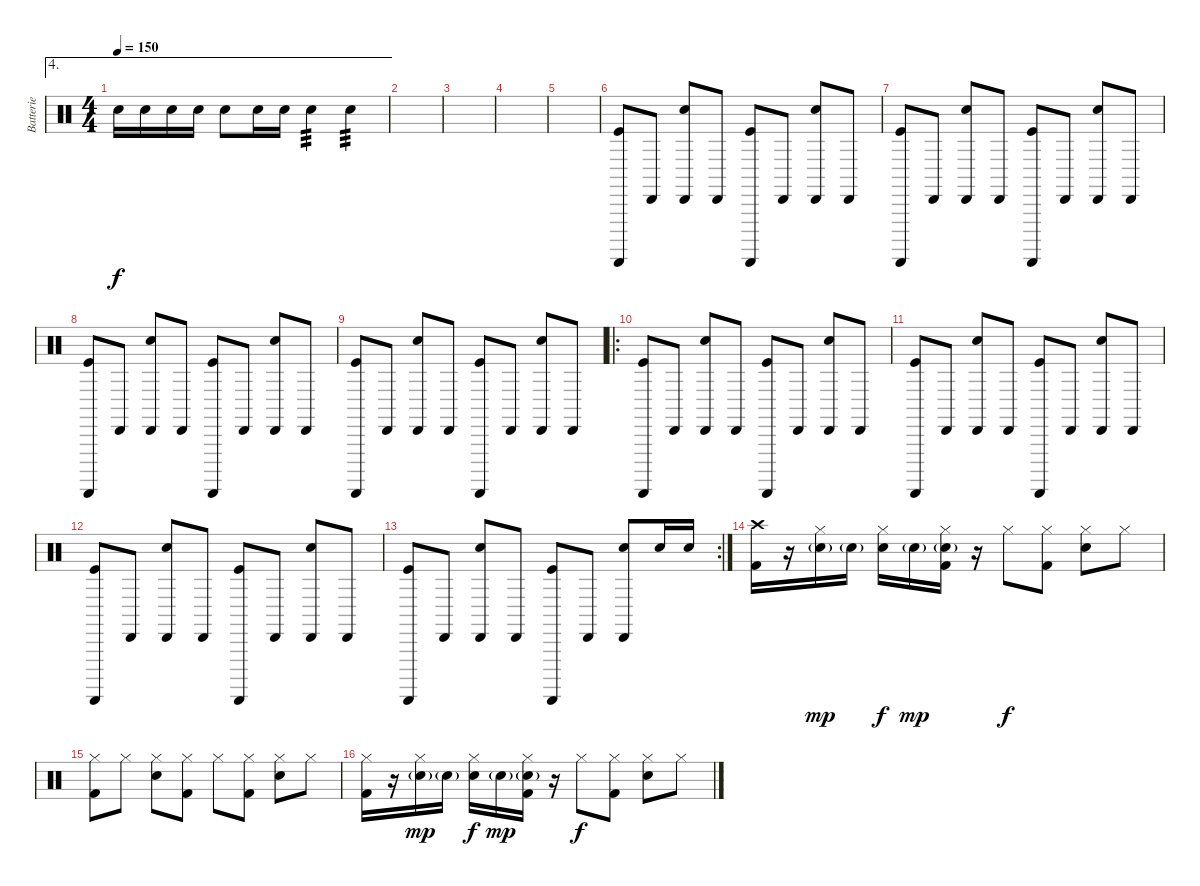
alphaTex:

\track ("Batterie" "Batterie") {instrument percussion}
\staff {score}
\articulation defaults
\ae 4
\ts (4 4)
\tempo 150
\clef neutral
\ks c "Snare (hit) 2".16{dy f} "Snare (hit) 2".16 "Snare (hit) 2".16 "Snare (hit) 2".16 "Snare (hit) 2".8 "Snare (hit) 2".16 "Snare (hit) 2".16 "Snare (hit) 2".4{tp 3} "Snare (hit) 2".4{tp 3}
|
|
|
|
|
("Guiro (scrap-return)" "Kick (hit)").8 "Cabasa (hit)".8 ("Cabasa (hit)" "Hand Clap (hit)").8 "Cabasa (hit)".8 ("Guiro (scrap-return)" "Kick (hit)").8 "Cabasa (hit)".8 ("Cabasa (hit)" "Hand Clap (hit)").8 "Cabasa (hit)".8 |
("Guiro (scrap-return)" "Kick (hit)").8 "Cabasa (hit)".8 ("Cabasa (hit)" "Hand Clap (hit)").8 "Cabasa (hit)".8 ("Guiro (scrap-return)" "Kick (hit)").8 "Cabasa (hit)".8 ("Cabasa (hit)" "Hand Clap (hit)").8 "Cabasa (hit)".8 |
("Guiro (scrap-return)" "Kick (hit)").8 "Cabasa (hit)".8 ("Cabasa (hit)" "Hand Clap (hit)").8 "Cabasa (hit)".8 ("Guiro (scrap-return)" "Kick (hit)").8 "Cabasa (hit)".8 ("Cabasa (hit)" "Hand Clap (hit)").8 "Cabasa (hit)".8 |
("Guiro (scrap-return)" "Kick (hit)").8 "Cabasa (hit)".8 ("Cabasa (hit)" "Hand Clap (hit)").8 "Cabasa (hit)".8 ("Guiro (scrap-return)" "Kick (hit)").8 "Cabasa (hit)".8 ("Cabasa (hit)" "Hand Clap (hit)").8 "Cabasa (hit)".8 |
\ro
("Guiro (scrap-return)" "Kick (hit)").8 "Cabasa (hit)".8 ("Cabasa (hit)" "Hand Clap (hit)").8 "Cabasa (hit)".8 ("Guiro (scrap-return)" "Kick (hit)").8 "Cabasa (hit)".8 ("Cabasa (hit)" "Hand Clap (hit)").8 "Cabasa (hit)".8 |
("Guiro (scrap-return)" "Kick (hit)").8 "Cabasa (hit)".8 ("Cabasa (hit)" "Hand Clap (hit)").8 "Cabasa (hit)".8 ("Guiro (scrap-return)" "Kick (hit)").8 "Cabasa (hit)".8 ("Cabasa (hit)" "Hand Clap (hit)").8 "Cabasa (hit)".8 |
("Guiro (scrap-return)" "Kick (hit)").8 "Cabasa (hit)".8 ("Cabasa (hit)" "Hand Clap (hit)").8 "Cabasa (hit)".8 ("Guiro (scrap-return)" "Kick (hit)").8 "Cabasa (hit)".8 ("Cabasa (hit)" "Hand Clap (hit)").8 "Cabasa (hit)".8 |
\rc 2
("Guiro (scrap-return)" "Kick (hit)").8 "Cabasa (hit)".8 ("Cabasa (hit)" "Hand Clap (hit)").8 "Cabasa (hit)".8 ("Guiro (scrap-return)" "Kick (hit)").8 "Cabasa (hit)".8 ("Cabasa (hit)" "Hand Clap (hit)").8 "Snare (hit) 2".16 "Snare (hit) 2".16 |
("Crash high (hit)" "Kick (hit) 2").16 r.16 ("Hi-Hat (closed)" "Snare (hit) 2"{g}).16{dy mp} "Snare (hit) 2"{g}.16 ("Hi-Hat (closed)" "Snare (hit) 2").16{dy f} "Snare (hit) 2"{g}.16{dy mp} ("Hi-Hat (closed)" "Snare (hit) 2"{g} "Kick (hit) 2").16 r.16 "Hi-Hat (closed)".8{dy f} ("Hi-Hat (closed)" "Kick (hit) 2").8 ("Hi-Hat (closed)" "Snare (hit) 2").8 "Hi-Hat (closed)".8 |
("Hi-Hat (closed)" "Kick (hit) 2").8 "Hi-Hat (closed)".8 ("Hi-Hat (closed)" "Snare (hit) 2").8 ("Hi-Hat (closed)" "Kick (hit) 2").8 "Hi-Hat (closed)".8 ("Hi-Hat (closed)" "Kick (hit) 2").8 ("Hi-Hat (closed)" "Snare (hit) 2").8 "Hi-Hat (closed)".8 |
("Hi-Hat (closed)" "Kick (hit) 2").16 r.16 ("Hi-Hat (closed)" "Snare (hit) 2"{g}).16{dy mp} "Snare (hit) 2"{g}.16 ("Hi-Hat (closed)" "Snare (hit) 2").16{dy f} "Snare (hit) 2"{g}.16{dy mp} ("Hi-Hat (closed)" "Snare (hit) 2"{g} "Kick (hit) 2").16 r.16 "Hi-Hat (closed)".8{dy f} ("Hi-Hat (closed)" "Kick (hit) 2").8 ("Hi-Hat (closed)" "Snare (hit) 2").8 "Hi-Hat (closed)".8
